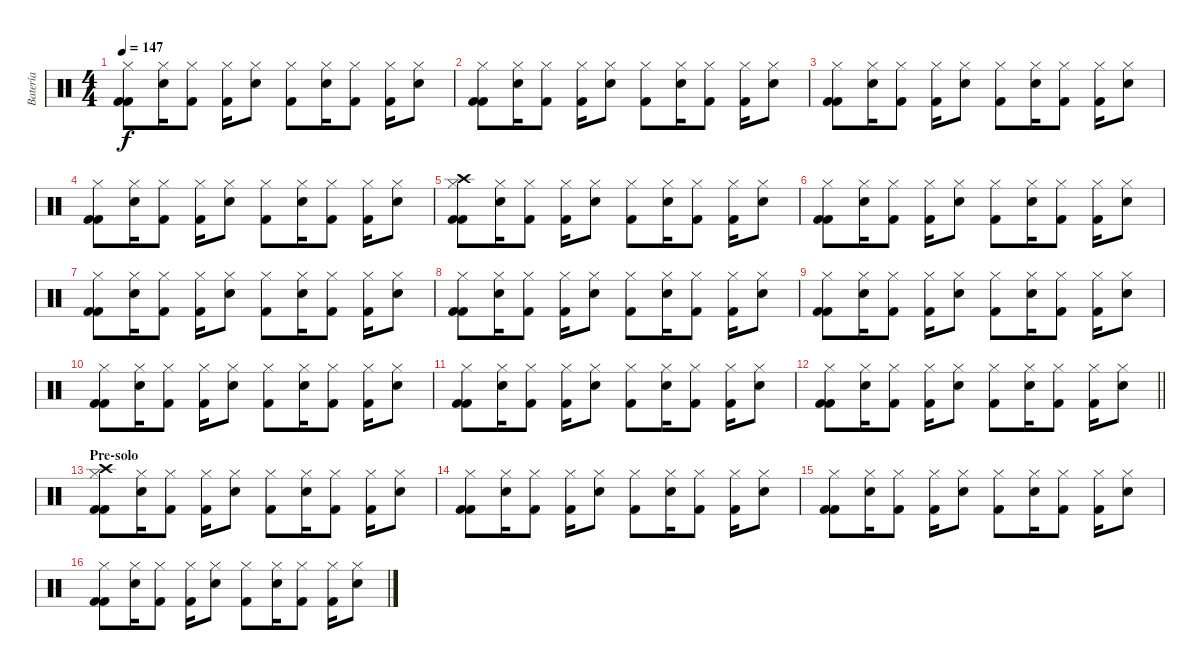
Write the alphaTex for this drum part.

\track ("Batería" "Batería") {instrument percussion}
\staff {score}
\articulation defaults
\ts (4 4)
\tempo 147
\clef neutral
\ks c
("Hi-Hat (closed)" "Kick (hit) 2" "Kick (hit) 2").8{dy f} ("Hi-Hat (closed)" "Electric Snare (hit)").16 ("Hi-Hat (closed)" "Kick (hit) 2").8 ("Hi-Hat (closed)" "Kick (hit) 2").16 ("Hi-Hat (closed)" "Electric Snare (hit)").8 ("Hi-Hat (closed)" "Kick (hit) 2").8 ("Hi-Hat (closed)" "Electric Snare (hit)").16 ("Hi-Hat (closed)" "Kick (hit) 2").8 ("Hi-Hat (closed)" "Kick (hit) 2").16 ("Hi-Hat (closed)" "Electric Snare (hit)").8 |
("Hi-Hat (closed)" "Kick (hit) 2" "Kick (hit) 2").8 ("Hi-Hat (closed)" "Electric Snare (hit)").16 ("Hi-Hat (closed)" "Kick (hit) 2").8 ("Hi-Hat (closed)" "Kick (hit) 2").16 ("Hi-Hat (closed)" "Electric Snare (hit)").8 ("Hi-Hat (closed)" "Kick (hit) 2").8 ("Hi-Hat (closed)" "Electric Snare (hit)").16 ("Hi-Hat (closed)" "Kick (hit) 2").8 ("Hi-Hat (closed)" "Kick (hit) 2").16 ("Hi-Hat (closed)" "Electric Snare (hit)").8 |
("Hi-Hat (closed)" "Kick (hit) 2" "Kick (hit) 2").8 ("Hi-Hat (closed)" "Electric Snare (hit)").16 ("Hi-Hat (closed)" "Kick (hit) 2").8 ("Hi-Hat (closed)" "Kick (hit) 2").16 ("Hi-Hat (closed)" "Electric Snare (hit)").8 ("Hi-Hat (closed)" "Kick (hit) 2").8 ("Hi-Hat (closed)" "Electric Snare (hit)").16 ("Hi-Hat (closed)" "Kick (hit) 2").8 ("Hi-Hat (closed)" "Kick (hit) 2").16 ("Hi-Hat (closed)" "Electric Snare (hit)").8 |
("Hi-Hat (closed)" "Kick (hit) 2" "Kick (hit) 2").8 ("Hi-Hat (closed)" "Electric Snare (hit)").16 ("Hi-Hat (closed)" "Kick (hit) 2").8 ("Hi-Hat (closed)" "Kick (hit) 2").16 ("Hi-Hat (closed)" "Electric Snare (hit)").8 ("Hi-Hat (closed)" "Kick (hit) 2").8 ("Hi-Hat (closed)" "Electric Snare (hit)").16 ("Hi-Hat (closed)" "Kick (hit) 2").8 ("Hi-Hat (closed)" "Kick (hit) 2").16 ("Hi-Hat (closed)" "Electric Snare (hit)").8 |
("Crash high (hit)" "Hi-Hat (closed)" "Kick (hit) 2" "Kick (hit) 2").8 ("Hi-Hat (closed)" "Electric Snare (hit)").16 ("Hi-Hat (closed)" "Kick (hit) 2").8 ("Hi-Hat (closed)" "Kick (hit) 2").16 ("Hi-Hat (closed)" "Electric Snare (hit)").8 ("Hi-Hat (closed)" "Kick (hit) 2").8 ("Hi-Hat (closed)" "Electric Snare (hit)").16 ("Hi-Hat (closed)" "Kick (hit) 2").8 ("Hi-Hat (closed)" "Kick (hit) 2").16 ("Hi-Hat (closed)" "Electric Snare (hit)").8 |
("Hi-Hat (closed)" "Kick (hit) 2" "Kick (hit) 2").8 ("Hi-Hat (closed)" "Electric Snare (hit)").16 ("Hi-Hat (closed)" "Kick (hit) 2").8 ("Hi-Hat (closed)" "Kick (hit) 2").16 ("Hi-Hat (closed)" "Electric Snare (hit)").8 ("Hi-Hat (closed)" "Kick (hit) 2").8 ("Hi-Hat (closed)" "Electric Snare (hit)").16 ("Hi-Hat (closed)" "Kick (hit) 2").8 ("Hi-Hat (closed)" "Kick (hit) 2").16 ("Hi-Hat (closed)" "Electric Snare (hit)").8 |
("Hi-Hat (closed)" "Kick (hit) 2" "Kick (hit) 2").8 ("Hi-Hat (closed)" "Electric Snare (hit)").16 ("Hi-Hat (closed)" "Kick (hit) 2").8 ("Hi-Hat (closed)" "Kick (hit) 2").16 ("Hi-Hat (closed)" "Electric Snare (hit)").8 ("Hi-Hat (closed)" "Kick (hit) 2").8 ("Hi-Hat (closed)" "Electric Snare (hit)").16 ("Hi-Hat (closed)" "Kick (hit) 2").8 ("Hi-Hat (closed)" "Kick (hit) 2").16 ("Hi-Hat (closed)" "Electric Snare (hit)").8 |
("Hi-Hat (closed)" "Kick (hit) 2" "Kick (hit) 2").8 ("Hi-Hat (closed)" "Electric Snare (hit)").16 ("Hi-Hat (closed)" "Kick (hit) 2").8 ("Hi-Hat (closed)" "Kick (hit) 2").16 ("Hi-Hat (closed)" "Electric Snare (hit)").8 ("Hi-Hat (closed)" "Kick (hit) 2").8 ("Hi-Hat (closed)" "Electric Snare (hit)").16 ("Hi-Hat (closed)" "Kick (hit) 2").8 ("Hi-Hat (closed)" "Kick (hit) 2").16 ("Hi-Hat (closed)" "Electric Snare (hit)").8 |
("Hi-Hat (closed)" "Kick (hit) 2" "Kick (hit) 2").8 ("Hi-Hat (closed)" "Electric Snare (hit)").16 ("Hi-Hat (closed)" "Kick (hit) 2").8 ("Hi-Hat (closed)" "Kick (hit) 2").16 ("Hi-Hat (closed)" "Electric Snare (hit)").8 ("Hi-Hat (closed)" "Kick (hit) 2").8 ("Hi-Hat (closed)" "Electric Snare (hit)").16 ("Hi-Hat (closed)" "Kick (hit) 2").8 ("Hi-Hat (closed)" "Kick (hit) 2").16 ("Hi-Hat (closed)" "Electric Snare (hit)").8 |
("Hi-Hat (closed)" "Kick (hit) 2" "Kick (hit) 2").8 ("Hi-Hat (closed)" "Electric Snare (hit)").16 ("Hi-Hat (closed)" "Kick (hit) 2").8 ("Hi-Hat (closed)" "Kick (hit) 2").16 ("Hi-Hat (closed)" "Electric Snare (hit)").8 ("Hi-Hat (closed)" "Kick (hit) 2").8 ("Hi-Hat (closed)" "Electric Snare (hit)").16 ("Hi-Hat (closed)" "Kick (hit) 2").8 ("Hi-Hat (closed)" "Kick (hit) 2").16 ("Hi-Hat (closed)" "Electric Snare (hit)").8 |
("Hi-Hat (closed)" "Kick (hit) 2" "Kick (hit) 2").8 ("Hi-Hat (closed)" "Electric Snare (hit)").16 ("Hi-Hat (closed)" "Kick (hit) 2").8 ("Hi-Hat (closed)" "Kick (hit) 2").16 ("Hi-Hat (closed)" "Electric Snare (hit)").8 ("Hi-Hat (closed)" "Kick (hit) 2").8 ("Hi-Hat (closed)" "Electric Snare (hit)").16 ("Hi-Hat (closed)" "Kick (hit) 2").8 ("Hi-Hat (closed)" "Kick (hit) 2").16 ("Hi-Hat (closed)" "Electric Snare (hit)").8 |
\barLineRight lightlight
("Hi-Hat (closed)" "Kick (hit) 2" "Kick (hit) 2").8 ("Hi-Hat (closed)" "Electric Snare (hit)").16 ("Hi-Hat (closed)" "Kick (hit) 2").8 ("Hi-Hat (closed)" "Kick (hit) 2").16 ("Hi-Hat (closed)" "Electric Snare (hit)").8 ("Hi-Hat (closed)" "Kick (hit) 2").8 ("Hi-Hat (closed)" "Electric Snare (hit)").16 ("Hi-Hat (closed)" "Kick (hit) 2").8 ("Hi-Hat (closed)" "Kick (hit) 2").16 ("Hi-Hat (closed)" "Electric Snare (hit)").8 |
\section ("" "Pre-solo")
("Crash high (hit)" "Hi-Hat (closed)" "Kick (hit) 2" "Kick (hit) 2").8 ("Hi-Hat (closed)" "Electric Snare (hit)").16 ("Hi-Hat (closed)" "Kick (hit) 2").8 ("Hi-Hat (closed)" "Kick (hit) 2").16 ("Hi-Hat (closed)" "Electric Snare (hit)").8 ("Hi-Hat (closed)" "Kick (hit) 2").8 ("Hi-Hat (closed)" "Electric Snare (hit)").16 ("Hi-Hat (closed)" "Kick (hit) 2").8 ("Hi-Hat (closed)" "Kick (hit) 2").16 ("Hi-Hat (closed)" "Electric Snare (hit)").8 |
("Hi-Hat (closed)" "Kick (hit) 2" "Kick (hit) 2").8 ("Hi-Hat (closed)" "Electric Snare (hit)").16 ("Hi-Hat (closed)" "Kick (hit) 2").8 ("Hi-Hat (closed)" "Kick (hit) 2").16 ("Hi-Hat (closed)" "Electric Snare (hit)").8 ("Hi-Hat (closed)" "Kick (hit) 2").8 ("Hi-Hat (closed)" "Electric Snare (hit)").16 ("Hi-Hat (closed)" "Kick (hit) 2").8 ("Hi-Hat (closed)" "Kick (hit) 2").16 ("Hi-Hat (closed)" "Electric Snare (hit)").8 |
("Hi-Hat (closed)" "Kick (hit) 2" "Kick (hit) 2").8 ("Hi-Hat (closed)" "Electric Snare (hit)").16 ("Hi-Hat (closed)" "Kick (hit) 2").8 ("Hi-Hat (closed)" "Kick (hit) 2").16 ("Hi-Hat (closed)" "Electric Snare (hit)").8 ("Hi-Hat (closed)" "Kick (hit) 2").8 ("Hi-Hat (closed)" "Electric Snare (hit)").16 ("Hi-Hat (closed)" "Kick (hit) 2").8 ("Hi-Hat (closed)" "Kick (hit) 2").16 ("Hi-Hat (closed)" "Electric Snare (hit)").8 |
("Hi-Hat (closed)" "Kick (hit) 2" "Kick (hit) 2").8 ("Hi-Hat (closed)" "Electric Snare (hit)").16 ("Hi-Hat (closed)" "Kick (hit) 2").8 ("Hi-Hat (closed)" "Kick (hit) 2").16 ("Hi-Hat (closed)" "Electric Snare (hit)").8 ("Hi-Hat (closed)" "Kick (hit) 2").8 ("Hi-Hat (closed)" "Electric Snare (hit)").16 ("Hi-Hat (closed)" "Kick (hit) 2").8 ("Hi-Hat (closed)" "Kick (hit) 2").16 ("Hi-Hat (closed)" "Electric Snare (hit)").8
